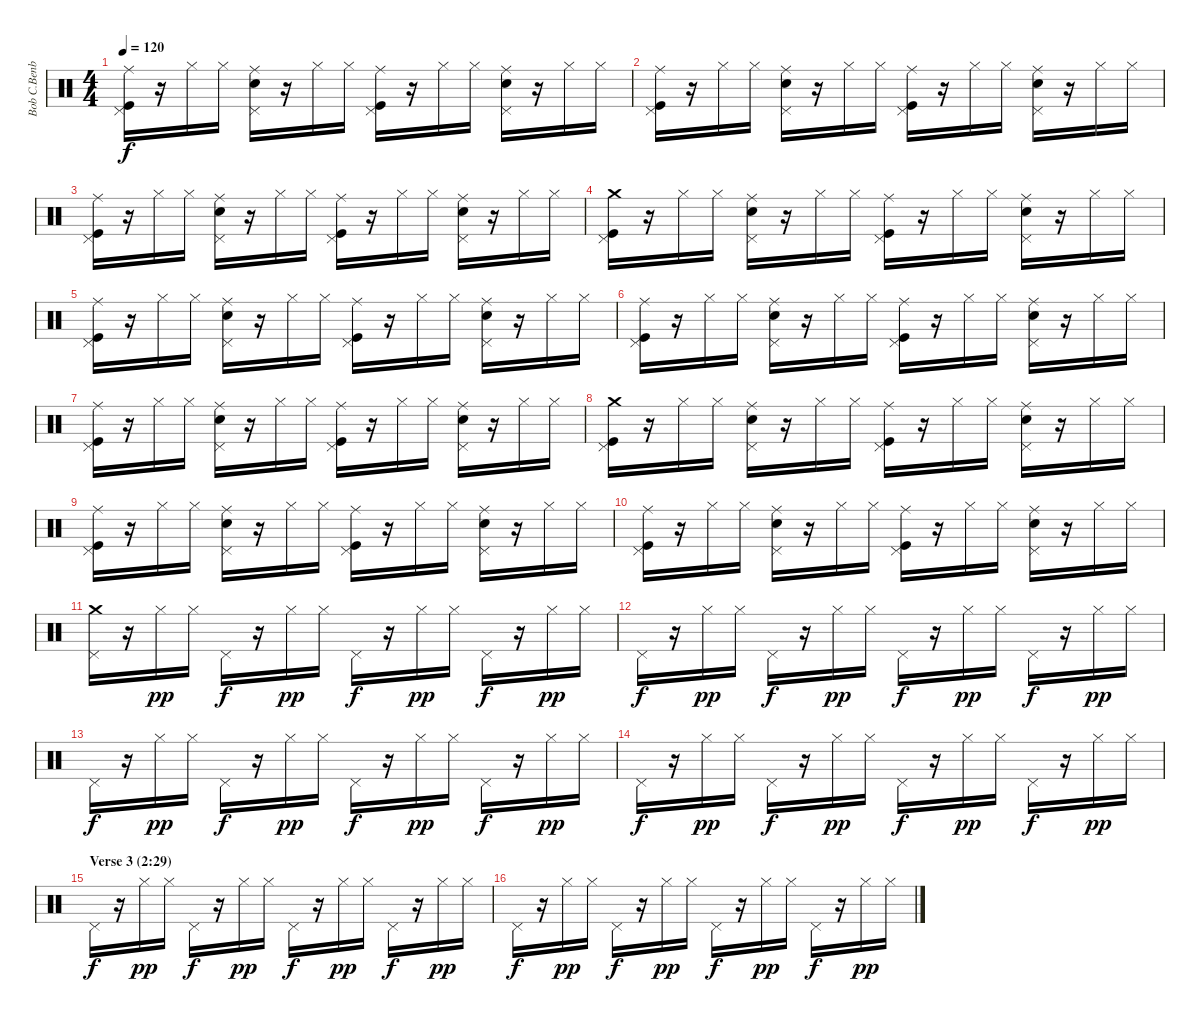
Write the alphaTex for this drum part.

\track ("Bob C.Benberg (drums)" "Bob C.Benb") {instrument percussion}
\staff {score}
\articulation defaults
\ts (4 4)
\tempo 120
\clef neutral
\ks c
("Pedal Hi-Hat (hit)" "Kick (hit)" "Ride (middle)").16{dy f} r.16 "Hi-Hat (closed)".16 "Hi-Hat (closed)".16 ("Pedal Hi-Hat (hit)" "Snare (hit) 2" "Ride (middle)").16 r.16 "Hi-Hat (closed)".16 "Hi-Hat (closed)".16 ("Pedal Hi-Hat (hit)" "Kick (hit)" "Ride (middle)").16 r.16 "Hi-Hat (closed)".16 "Hi-Hat (closed)".16 ("Pedal Hi-Hat (hit)" "Snare (hit) 2" "Ride (middle)").16 r.16 "Hi-Hat (closed)".16 "Hi-Hat (closed)".16 |
("Pedal Hi-Hat (hit)" "Kick (hit)" "Ride (middle)").16 r.16 "Hi-Hat (closed)".16 "Hi-Hat (closed)".16 ("Pedal Hi-Hat (hit)" "Snare (hit) 2" "Ride (middle)").16 r.16 "Hi-Hat (closed)".16 "Hi-Hat (closed)".16 ("Pedal Hi-Hat (hit)" "Kick (hit)" "Ride (middle)").16 r.16 "Hi-Hat (closed)".16 "Hi-Hat (closed)".16 ("Pedal Hi-Hat (hit)" "Snare (hit) 2" "Ride (middle)").16 r.16 "Hi-Hat (closed)".16 "Hi-Hat (closed)".16 |
("Pedal Hi-Hat (hit)" "Kick (hit)" "Ride (middle)").16 r.16 "Hi-Hat (closed)".16 "Hi-Hat (closed)".16 ("Pedal Hi-Hat (hit)" "Snare (hit) 2" "Ride (middle)").16 r.16 "Hi-Hat (closed)".16 "Hi-Hat (closed)".16 ("Pedal Hi-Hat (hit)" "Kick (hit)" "Ride (middle)").16 r.16 "Hi-Hat (closed)".16 "Hi-Hat (closed)".16 ("Pedal Hi-Hat (hit)" "Snare (hit) 2" "Ride (middle)").16 r.16 "Hi-Hat (closed)".16 "Hi-Hat (closed)".16 |
("Pedal Hi-Hat (hit)" "Kick (hit)" "Crash medium (hit)").16 r.16 "Hi-Hat (closed)".16 "Hi-Hat (closed)".16 ("Pedal Hi-Hat (hit)" "Snare (hit) 2" "Ride (middle)").16 r.16 "Hi-Hat (closed)".16 "Hi-Hat (closed)".16 ("Pedal Hi-Hat (hit)" "Kick (hit)" "Ride (middle)").16 r.16 "Hi-Hat (closed)".16 "Hi-Hat (closed)".16 ("Pedal Hi-Hat (hit)" "Snare (hit) 2" "Ride (middle)").16 r.16 "Hi-Hat (closed)".16 "Hi-Hat (closed)".16 |
("Pedal Hi-Hat (hit)" "Kick (hit)" "Ride (middle)").16 r.16 "Hi-Hat (closed)".16 "Hi-Hat (closed)".16 ("Pedal Hi-Hat (hit)" "Snare (hit) 2" "Ride (middle)").16 r.16 "Hi-Hat (closed)".16 "Hi-Hat (closed)".16 ("Pedal Hi-Hat (hit)" "Kick (hit)" "Ride (middle)").16 r.16 "Hi-Hat (closed)".16 "Hi-Hat (closed)".16 ("Pedal Hi-Hat (hit)" "Snare (hit) 2" "Ride (middle)").16 r.16 "Hi-Hat (closed)".16 "Hi-Hat (closed)".16 |
("Pedal Hi-Hat (hit)" "Kick (hit)" "Ride (middle)").16 r.16 "Hi-Hat (closed)".16 "Hi-Hat (closed)".16 ("Pedal Hi-Hat (hit)" "Snare (hit) 2" "Ride (middle)").16 r.16 "Hi-Hat (closed)".16 "Hi-Hat (closed)".16 ("Pedal Hi-Hat (hit)" "Kick (hit)" "Ride (middle)").16 r.16 "Hi-Hat (closed)".16 "Hi-Hat (closed)".16 ("Pedal Hi-Hat (hit)" "Snare (hit) 2" "Ride (middle)").16 r.16 "Hi-Hat (closed)".16 "Hi-Hat (closed)".16 |
("Pedal Hi-Hat (hit)" "Kick (hit)" "Ride (middle)").16 r.16 "Hi-Hat (closed)".16 "Hi-Hat (closed)".16 ("Pedal Hi-Hat (hit)" "Snare (hit) 2" "Ride (middle)").16 r.16 "Hi-Hat (closed)".16 "Hi-Hat (closed)".16 ("Pedal Hi-Hat (hit)" "Kick (hit)" "Ride (middle)").16 r.16 "Hi-Hat (closed)".16 "Hi-Hat (closed)".16 ("Pedal Hi-Hat (hit)" "Snare (hit) 2" "Ride (middle)").16 r.16 "Hi-Hat (closed)".16 "Hi-Hat (closed)".16 |
("Pedal Hi-Hat (hit)" "Kick (hit)" "Crash medium (hit)").16 r.16 "Hi-Hat (closed)".16 "Hi-Hat (closed)".16 ("Pedal Hi-Hat (hit)" "Snare (hit) 2" "Ride (middle)").16 r.16 "Hi-Hat (closed)".16 "Hi-Hat (closed)".16 ("Pedal Hi-Hat (hit)" "Kick (hit)" "Ride (middle)").16 r.16 "Hi-Hat (closed)".16 "Hi-Hat (closed)".16 ("Pedal Hi-Hat (hit)" "Snare (hit) 2" "Ride (middle)").16 r.16 "Hi-Hat (closed)".16 "Hi-Hat (closed)".16 |
("Pedal Hi-Hat (hit)" "Kick (hit)" "Ride (middle)").16 r.16 "Hi-Hat (closed)".16 "Hi-Hat (closed)".16 ("Pedal Hi-Hat (hit)" "Snare (hit) 2" "Ride (middle)").16 r.16 "Hi-Hat (closed)".16 "Hi-Hat (closed)".16 ("Pedal Hi-Hat (hit)" "Kick (hit)" "Ride (middle)").16 r.16 "Hi-Hat (closed)".16 "Hi-Hat (closed)".16 ("Pedal Hi-Hat (hit)" "Snare (hit) 2" "Ride (middle)").16 r.16 "Hi-Hat (closed)".16 "Hi-Hat (closed)".16 |
("Pedal Hi-Hat (hit)" "Kick (hit)" "Ride (middle)").16 r.16 "Hi-Hat (closed)".16 "Hi-Hat (closed)".16 ("Pedal Hi-Hat (hit)" "Snare (hit) 2" "Ride (middle)").16 r.16 "Hi-Hat (closed)".16 "Hi-Hat (closed)".16 ("Pedal Hi-Hat (hit)" "Kick (hit)" "Ride (middle)").16 r.16 "Hi-Hat (closed)".16 "Hi-Hat (closed)".16 ("Pedal Hi-Hat (hit)" "Snare (hit) 2" "Ride (middle)").16 r.16 "Hi-Hat (closed)".16 "Hi-Hat (closed)".16 |
("Pedal Hi-Hat (hit)" "Crash medium (hit)").16 r.16 "Hi-Hat (closed)".16{dy pp} "Hi-Hat (closed)".16 "Pedal Hi-Hat (hit)".16{dy f} r.16 "Hi-Hat (closed)".16{dy pp} "Hi-Hat (closed)".16 "Pedal Hi-Hat (hit)".16{dy f} r.16 "Hi-Hat (closed)".16{dy pp} "Hi-Hat (closed)".16 "Pedal Hi-Hat (hit)".16{dy f} r.16 "Hi-Hat (closed)".16{dy pp} "Hi-Hat (closed)".16 |
"Pedal Hi-Hat (hit)".16{dy f} r.16 "Hi-Hat (closed)".16{dy pp} "Hi-Hat (closed)".16 "Pedal Hi-Hat (hit)".16{dy f} r.16 "Hi-Hat (closed)".16{dy pp} "Hi-Hat (closed)".16 "Pedal Hi-Hat (hit)".16{dy f} r.16 "Hi-Hat (closed)".16{dy pp} "Hi-Hat (closed)".16 "Pedal Hi-Hat (hit)".16{dy f} r.16 "Hi-Hat (closed)".16{dy pp} "Hi-Hat (closed)".16 |
"Pedal Hi-Hat (hit)".16{dy f} r.16 "Hi-Hat (closed)".16{dy pp} "Hi-Hat (closed)".16 "Pedal Hi-Hat (hit)".16{dy f} r.16 "Hi-Hat (closed)".16{dy pp} "Hi-Hat (closed)".16 "Pedal Hi-Hat (hit)".16{dy f} r.16 "Hi-Hat (closed)".16{dy pp} "Hi-Hat (closed)".16 "Pedal Hi-Hat (hit)".16{dy f} r.16 "Hi-Hat (closed)".16{dy pp} "Hi-Hat (closed)".16 |
"Pedal Hi-Hat (hit)".16{dy f} r.16 "Hi-Hat (closed)".16{dy pp} "Hi-Hat (closed)".16 "Pedal Hi-Hat (hit)".16{dy f} r.16 "Hi-Hat (closed)".16{dy pp} "Hi-Hat (closed)".16 "Pedal Hi-Hat (hit)".16{dy f} r.16 "Hi-Hat (closed)".16{dy pp} "Hi-Hat (closed)".16 "Pedal Hi-Hat (hit)".16{dy f} r.16 "Hi-Hat (closed)".16{dy pp} "Hi-Hat (closed)".16 |
\section ("" "Verse 3 (2:29)")
"Pedal Hi-Hat (hit)".16{dy f} r.16 "Hi-Hat (closed)".16{dy pp} "Hi-Hat (closed)".16 "Pedal Hi-Hat (hit)".16{dy f} r.16 "Hi-Hat (closed)".16{dy pp} "Hi-Hat (closed)".16 "Pedal Hi-Hat (hit)".16{dy f} r.16 "Hi-Hat (closed)".16{dy pp} "Hi-Hat (closed)".16 "Pedal Hi-Hat (hit)".16{dy f} r.16 "Hi-Hat (closed)".16{dy pp} "Hi-Hat (closed)".16 |
"Pedal Hi-Hat (hit)".16{dy f} r.16 "Hi-Hat (closed)".16{dy pp} "Hi-Hat (closed)".16 "Pedal Hi-Hat (hit)".16{dy f} r.16 "Hi-Hat (closed)".16{dy pp} "Hi-Hat (closed)".16 "Pedal Hi-Hat (hit)".16{dy f} r.16 "Hi-Hat (closed)".16{dy pp} "Hi-Hat (closed)".16 "Pedal Hi-Hat (hit)".16{dy f} r.16 "Hi-Hat (closed)".16{dy pp} "Hi-Hat (closed)".16
